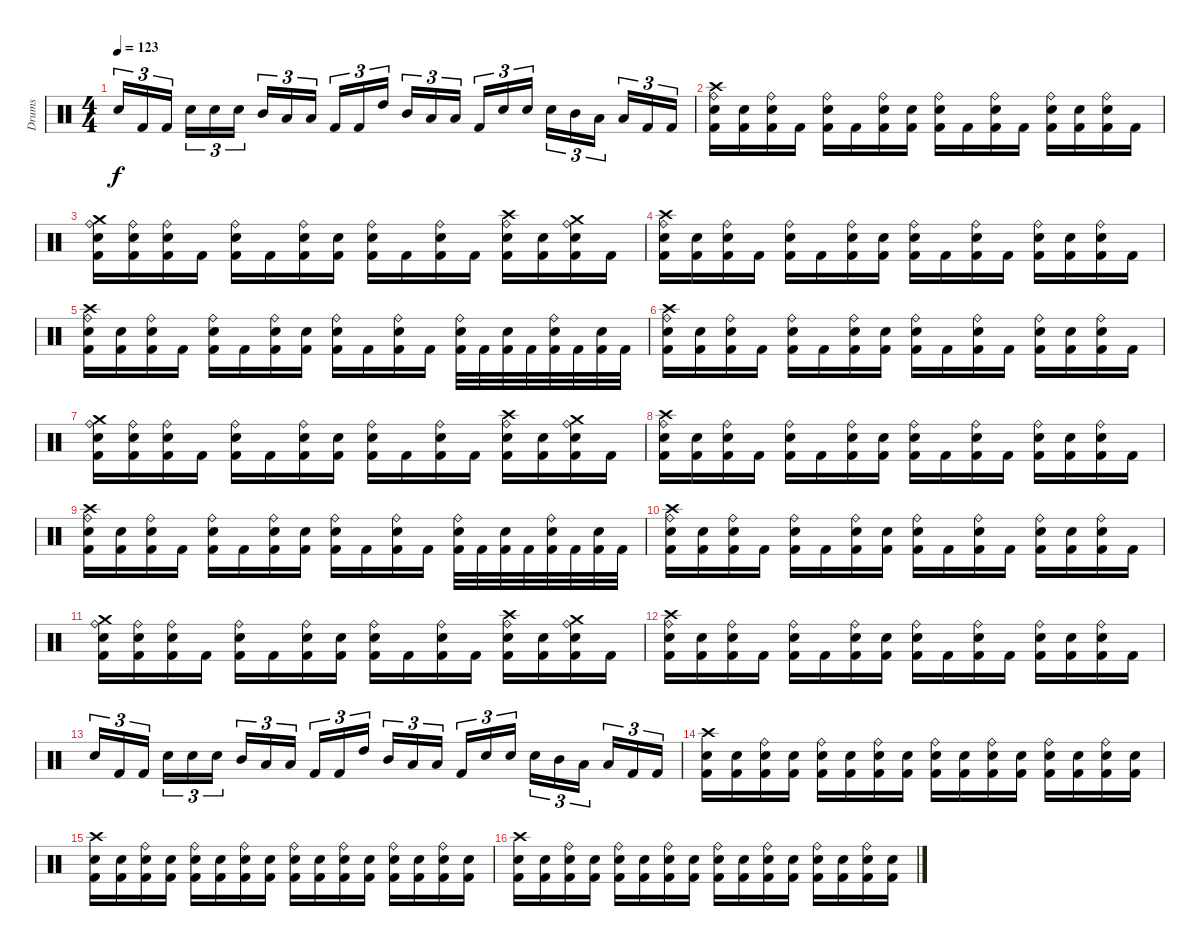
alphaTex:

\track ("Drums" "Drums") {instrument percussion}
\staff {score}
\articulation defaults
\ts (4 4)
\tempo 123
\clef neutral
\ks c "Snare (hit) 2".16{tu (3 2) dy f} "Kick (hit) 2".16{tu (3 2)} "Kick (hit) 2".16{tu (3 2) beam splitsecondary} "Snare (hit) 2".16{tu (3 2)} "Snare (hit) 2".16{tu (3 2)} "Snare (hit) 2".16{tu (3 2)} "Mid Tom (hit)".16{tu (3 2)} "Low Tom (hit)".16{tu (3 2)} "Low Floor Tom (hit)".16{tu (3 2) beam splitsecondary} "Kick (hit) 2".16{tu (3 2)} "Kick (hit) 2".16{tu (3 2)} "High Tom (hit)".16{tu (3 2)} "Mid Tom (hit)".16{tu (3 2)} "Low Tom (hit)".16{tu (3 2)} "Low Floor Tom (hit)".16{tu (3 2) beam splitsecondary} "Kick (hit) 2".16{tu (3 2)} "Snare (hit) 2".16{tu (3 2)} "Snare (hit) 2".16{tu (3 2)} "Snare (hit) 2".16{tu (3 2)} "Mid Tom (hit)".16{tu (3 2)} "Low Tom (hit)".16{tu (3 2) beam splitsecondary} "Low Floor Tom (hit)".16{tu (3 2)} "Kick (hit) 2".16{tu (3 2)} "Kick (hit) 2".16{tu (3 2)}
|
("Crash high (hit)" "Snare (hit) 2" "Ride (bell)" "Kick (hit) 2").16 ("Snare (hit) 2" "Kick (hit) 2").16 ("Snare (hit) 2" "Ride (bell)" "Kick (hit) 2").16 "Kick (hit) 2".16 ("Snare (hit) 2" "Ride (bell)" "Kick (hit) 2").16 "Kick (hit) 2".16 ("Snare (hit) 2" "Ride (bell)" "Kick (hit) 2").16 ("Snare (hit) 2" "Kick (hit) 2").16 ("Snare (hit) 2" "Ride (bell)" "Kick (hit) 2").16 "Kick (hit) 2".16 ("Snare (hit) 2" "Ride (bell)" "Kick (hit) 2").16 "Kick (hit) 2".16 ("Snare (hit) 2" "Ride (bell)" "Kick (hit) 2").16 ("Snare (hit) 2" "Kick (hit) 2").16 ("Snare (hit) 2" "Ride (bell)" "Kick (hit) 2").16 "Kick (hit) 2".16 |
("Crash medium (hit)" "Snare (hit) 2" "Ride (bell)" "Kick (hit) 2").16 ("Snare (hit) 2" "Ride (bell)" "Kick (hit) 2").16 ("Snare (hit) 2" "Ride (bell)" "Kick (hit) 2").16 "Kick (hit) 2".16 ("Snare (hit) 2" "Ride (bell)" "Kick (hit) 2").16 "Kick (hit) 2".16 ("Snare (hit) 2" "Ride (bell)" "Kick (hit) 2").16 ("Snare (hit) 2" "Kick (hit) 2").16 ("Snare (hit) 2" "Ride (bell)" "Kick (hit) 2").16 "Kick (hit) 2".16 ("Snare (hit) 2" "Ride (bell)" "Kick (hit) 2").16 "Kick (hit) 2".16 ("Crash high (hit)" "Snare (hit) 2" "Ride (bell)" "Kick (hit) 2").16 ("Snare (hit) 2" "Kick (hit) 2").16 ("Crash medium (hit)" "Snare (hit) 2" "Ride (bell)" "Kick (hit) 2").16 "Kick (hit) 2".16 |
("Crash high (hit)" "Snare (hit) 2" "Ride (bell)" "Kick (hit) 2").16 ("Snare (hit) 2" "Kick (hit) 2").16 ("Snare (hit) 2" "Ride (bell)" "Kick (hit) 2").16 "Kick (hit) 2".16 ("Snare (hit) 2" "Ride (bell)" "Kick (hit) 2").16 "Kick (hit) 2".16 ("Snare (hit) 2" "Ride (bell)" "Kick (hit) 2").16 ("Snare (hit) 2" "Kick (hit) 2").16 ("Snare (hit) 2" "Ride (bell)" "Kick (hit) 2").16 "Kick (hit) 2".16 ("Snare (hit) 2" "Ride (bell)" "Kick (hit) 2").16 "Kick (hit) 2".16 ("Snare (hit) 2" "Ride (bell)" "Kick (hit) 2").16 ("Snare (hit) 2" "Kick (hit) 2").16 ("Snare (hit) 2" "Ride (bell)" "Kick (hit) 2").16 "Kick (hit) 2".16 |
("Crash high (hit)" "Snare (hit) 2" "Ride (bell)" "Kick (hit) 2").16 ("Snare (hit) 2" "Kick (hit) 2").16 ("Snare (hit) 2" "Ride (bell)" "Kick (hit) 2").16 "Kick (hit) 2".16 ("Snare (hit) 2" "Ride (bell)" "Kick (hit) 2").16 "Kick (hit) 2".16 ("Snare (hit) 2" "Ride (bell)" "Kick (hit) 2").16 ("Snare (hit) 2" "Kick (hit) 2").16 ("Snare (hit) 2" "Ride (bell)" "Kick (hit) 2").16 "Kick (hit) 2".16 ("Snare (hit) 2" "Ride (bell)" "Kick (hit) 2").16 "Kick (hit) 2".16 ("Snare (hit) 2" "Ride (bell)" "Kick (hit) 2").32 "Kick (hit) 2".32 ("Snare (hit) 2" "Kick (hit) 2").32 "Kick (hit) 2".32 ("Snare (hit) 2" "Ride (bell)" "Kick (hit) 2").32 "Kick (hit) 2".32 ("Snare (hit) 2" "Kick (hit) 2").32 "Kick (hit) 2".32 |
("Crash high (hit)" "Snare (hit) 2" "Ride (bell)" "Kick (hit) 2").16 ("Snare (hit) 2" "Kick (hit) 2").16 ("Snare (hit) 2" "Ride (bell)" "Kick (hit) 2").16 "Kick (hit) 2".16 ("Snare (hit) 2" "Ride (bell)" "Kick (hit) 2").16 "Kick (hit) 2".16 ("Snare (hit) 2" "Ride (bell)" "Kick (hit) 2").16 ("Snare (hit) 2" "Kick (hit) 2").16 ("Snare (hit) 2" "Ride (bell)" "Kick (hit) 2").16 "Kick (hit) 2".16 ("Snare (hit) 2" "Ride (bell)" "Kick (hit) 2").16 "Kick (hit) 2".16 ("Snare (hit) 2" "Ride (bell)" "Kick (hit) 2").16 ("Snare (hit) 2" "Kick (hit) 2").16 ("Snare (hit) 2" "Ride (bell)" "Kick (hit) 2").16 "Kick (hit) 2".16 |
("Crash medium (hit)" "Snare (hit) 2" "Ride (bell)" "Kick (hit) 2").16 ("Snare (hit) 2" "Ride (bell)" "Kick (hit) 2").16 ("Snare (hit) 2" "Ride (bell)" "Kick (hit) 2").16 "Kick (hit) 2".16 ("Snare (hit) 2" "Ride (bell)" "Kick (hit) 2").16 "Kick (hit) 2".16 ("Snare (hit) 2" "Ride (bell)" "Kick (hit) 2").16 ("Snare (hit) 2" "Kick (hit) 2").16 ("Snare (hit) 2" "Ride (bell)" "Kick (hit) 2").16 "Kick (hit) 2".16 ("Snare (hit) 2" "Ride (bell)" "Kick (hit) 2").16 "Kick (hit) 2".16 ("Crash high (hit)" "Snare (hit) 2" "Ride (bell)" "Kick (hit) 2").16 ("Snare (hit) 2" "Kick (hit) 2").16 ("Crash medium (hit)" "Snare (hit) 2" "Ride (bell)" "Kick (hit) 2").16 "Kick (hit) 2".16 |
("Crash high (hit)" "Snare (hit) 2" "Ride (bell)" "Kick (hit) 2").16 ("Snare (hit) 2" "Kick (hit) 2").16 ("Snare (hit) 2" "Ride (bell)" "Kick (hit) 2").16 "Kick (hit) 2".16 ("Snare (hit) 2" "Ride (bell)" "Kick (hit) 2").16 "Kick (hit) 2".16 ("Snare (hit) 2" "Ride (bell)" "Kick (hit) 2").16 ("Snare (hit) 2" "Kick (hit) 2").16 ("Snare (hit) 2" "Ride (bell)" "Kick (hit) 2").16 "Kick (hit) 2".16 ("Snare (hit) 2" "Ride (bell)" "Kick (hit) 2").16 "Kick (hit) 2".16 ("Snare (hit) 2" "Ride (bell)" "Kick (hit) 2").16 ("Snare (hit) 2" "Kick (hit) 2").16 ("Snare (hit) 2" "Ride (bell)" "Kick (hit) 2").16 "Kick (hit) 2".16 |
("Crash high (hit)" "Snare (hit) 2" "Ride (bell)" "Kick (hit) 2").16 ("Snare (hit) 2" "Kick (hit) 2").16 ("Snare (hit) 2" "Ride (bell)" "Kick (hit) 2").16 "Kick (hit) 2".16 ("Snare (hit) 2" "Ride (bell)" "Kick (hit) 2").16 "Kick (hit) 2".16 ("Snare (hit) 2" "Ride (bell)" "Kick (hit) 2").16 ("Snare (hit) 2" "Kick (hit) 2").16 ("Snare (hit) 2" "Ride (bell)" "Kick (hit) 2").16 "Kick (hit) 2".16 ("Snare (hit) 2" "Ride (bell)" "Kick (hit) 2").16 "Kick (hit) 2".16 ("Snare (hit) 2" "Ride (bell)" "Kick (hit) 2").32 "Kick (hit) 2".32 ("Snare (hit) 2" "Kick (hit) 2").32 "Kick (hit) 2".32 ("Snare (hit) 2" "Ride (bell)" "Kick (hit) 2").32 "Kick (hit) 2".32 ("Snare (hit) 2" "Kick (hit) 2").32 "Kick (hit) 2".32 |
("Crash high (hit)" "Snare (hit) 2" "Ride (bell)" "Kick (hit) 2").16 ("Snare (hit) 2" "Kick (hit) 2").16 ("Snare (hit) 2" "Ride (bell)" "Kick (hit) 2").16 "Kick (hit) 2".16 ("Snare (hit) 2" "Ride (bell)" "Kick (hit) 2").16 "Kick (hit) 2".16 ("Snare (hit) 2" "Ride (bell)" "Kick (hit) 2").16 ("Snare (hit) 2" "Kick (hit) 2").16 ("Snare (hit) 2" "Ride (bell)" "Kick (hit) 2").16 "Kick (hit) 2".16 ("Snare (hit) 2" "Ride (bell)" "Kick (hit) 2").16 "Kick (hit) 2".16 ("Snare (hit) 2" "Ride (bell)" "Kick (hit) 2").16 ("Snare (hit) 2" "Kick (hit) 2").16 ("Snare (hit) 2" "Ride (bell)" "Kick (hit) 2").16 "Kick (hit) 2".16 |
("Crash medium (hit)" "Snare (hit) 2" "Ride (bell)" "Kick (hit) 2").16 ("Snare (hit) 2" "Ride (bell)" "Kick (hit) 2").16 ("Snare (hit) 2" "Ride (bell)" "Kick (hit) 2").16 "Kick (hit) 2".16 ("Snare (hit) 2" "Ride (bell)" "Kick (hit) 2").16 "Kick (hit) 2".16 ("Snare (hit) 2" "Ride (bell)" "Kick (hit) 2").16 ("Snare (hit) 2" "Kick (hit) 2").16 ("Snare (hit) 2" "Ride (bell)" "Kick (hit) 2").16 "Kick (hit) 2".16 ("Snare (hit) 2" "Ride (bell)" "Kick (hit) 2").16 "Kick (hit) 2".16 ("Crash high (hit)" "Snare (hit) 2" "Ride (bell)" "Kick (hit) 2").16 ("Snare (hit) 2" "Kick (hit) 2").16 ("Crash medium (hit)" "Snare (hit) 2" "Ride (bell)" "Kick (hit) 2").16 "Kick (hit) 2".16 |
("Crash high (hit)" "Snare (hit) 2" "Ride (bell)" "Kick (hit) 2").16 ("Snare (hit) 2" "Kick (hit) 2").16 ("Snare (hit) 2" "Ride (bell)" "Kick (hit) 2").16 "Kick (hit) 2".16 ("Snare (hit) 2" "Ride (bell)" "Kick (hit) 2").16 "Kick (hit) 2".16 ("Snare (hit) 2" "Ride (bell)" "Kick (hit) 2").16 ("Snare (hit) 2" "Kick (hit) 2").16 ("Snare (hit) 2" "Ride (bell)" "Kick (hit) 2").16 "Kick (hit) 2".16 ("Snare (hit) 2" "Ride (bell)" "Kick (hit) 2").16 "Kick (hit) 2".16 ("Snare (hit) 2" "Ride (bell)" "Kick (hit) 2").16 ("Snare (hit) 2" "Kick (hit) 2").16 ("Snare (hit) 2" "Ride (bell)" "Kick (hit) 2").16 "Kick (hit) 2".16 |
"Snare (hit) 2".16{tu (3 2)} "Kick (hit) 2".16{tu (3 2)} "Kick (hit) 2".16{tu (3 2) beam splitsecondary} "Snare (hit) 2".16{tu (3 2)} "Snare (hit) 2".16{tu (3 2)} "Snare (hit) 2".16{tu (3 2)} "Mid Tom (hit)".16{tu (3 2)} "Low Tom (hit)".16{tu (3 2)} "Low Floor Tom (hit)".16{tu (3 2) beam splitsecondary} "Kick (hit) 2".16{tu (3 2)} "Kick (hit) 2".16{tu (3 2)} "High Tom (hit)".16{tu (3 2)} "Mid Tom (hit)".16{tu (3 2)} "Low Tom (hit)".16{tu (3 2)} "Low Floor Tom (hit)".16{tu (3 2) beam splitsecondary} "Kick (hit) 2".16{tu (3 2)} "Snare (hit) 2".16{tu (3 2)} "Snare (hit) 2".16{tu (3 2)} "Snare (hit) 2".16{tu (3 2)} "Mid Tom (hit)".16{tu (3 2)} "Low Tom (hit)".16{tu (3 2) beam splitsecondary} "Low Floor Tom (hit)".16{tu (3 2)} "Kick (hit) 2".16{tu (3 2)} "Kick (hit) 2".16{tu (3 2)} |
("Crash high (hit)" "Snare (hit) 2" "Kick (hit) 2").16 ("Snare (hit) 2" "Kick (hit) 2").16 ("Ride (bell)" "Snare (hit) 2" "Kick (hit) 2").16 ("Snare (hit) 2" "Kick (hit) 2").16 ("Ride (bell)" "Snare (hit) 2" "Kick (hit) 2").16 ("Snare (hit) 2" "Kick (hit) 2").16 ("Ride (bell)" "Snare (hit) 2" "Kick (hit) 2").16 ("Snare (hit) 2" "Kick (hit) 2").16 ("Ride (bell)" "Snare (hit) 2" "Kick (hit) 2").16 ("Snare (hit) 2" "Kick (hit) 2").16 ("Ride (bell)" "Snare (hit) 2" "Kick (hit) 2").16 ("Snare (hit) 2" "Kick (hit) 2").16 ("Ride (bell)" "Snare (hit) 2" "Kick (hit) 2").16 ("Snare (hit) 2" "Kick (hit) 2").16 ("Ride (bell)" "Snare (hit) 2" "Kick (hit) 2").16 ("Snare (hit) 2" "Kick (hit) 2").16 |
("Crash high (hit)" "Snare (hit) 2" "Kick (hit) 2").16 ("Snare (hit) 2" "Kick (hit) 2").16 ("Ride (bell)" "Snare (hit) 2" "Kick (hit) 2").16 ("Snare (hit) 2" "Kick (hit) 2").16 ("Ride (bell)" "Snare (hit) 2" "Kick (hit) 2").16 ("Snare (hit) 2" "Kick (hit) 2").16 ("Ride (bell)" "Snare (hit) 2" "Kick (hit) 2").16 ("Snare (hit) 2" "Kick (hit) 2").16 ("Ride (bell)" "Snare (hit) 2" "Kick (hit) 2").16 ("Snare (hit) 2" "Kick (hit) 2").16 ("Ride (bell)" "Snare (hit) 2" "Kick (hit) 2").16 ("Snare (hit) 2" "Kick (hit) 2").16 ("Ride (bell)" "Snare (hit) 2" "Kick (hit) 2").16 ("Snare (hit) 2" "Kick (hit) 2").16 ("Ride (bell)" "Snare (hit) 2" "Kick (hit) 2").16 ("Snare (hit) 2" "Kick (hit) 2").16 |
("Crash high (hit)" "Snare (hit) 2" "Kick (hit) 2").16 ("Snare (hit) 2" "Kick (hit) 2").16 ("Ride (bell)" "Snare (hit) 2" "Kick (hit) 2").16 ("Snare (hit) 2" "Kick (hit) 2").16 ("Ride (bell)" "Snare (hit) 2" "Kick (hit) 2").16 ("Snare (hit) 2" "Kick (hit) 2").16 ("Ride (bell)" "Snare (hit) 2" "Kick (hit) 2").16 ("Snare (hit) 2" "Kick (hit) 2").16 ("Ride (bell)" "Snare (hit) 2" "Kick (hit) 2").16 ("Snare (hit) 2" "Kick (hit) 2").16 ("Ride (bell)" "Snare (hit) 2" "Kick (hit) 2").16 ("Snare (hit) 2" "Kick (hit) 2").16 ("Ride (bell)" "Snare (hit) 2" "Kick (hit) 2").16 ("Snare (hit) 2" "Kick (hit) 2").16 ("Ride (bell)" "Snare (hit) 2" "Kick (hit) 2").16 ("Snare (hit) 2" "Kick (hit) 2").16
